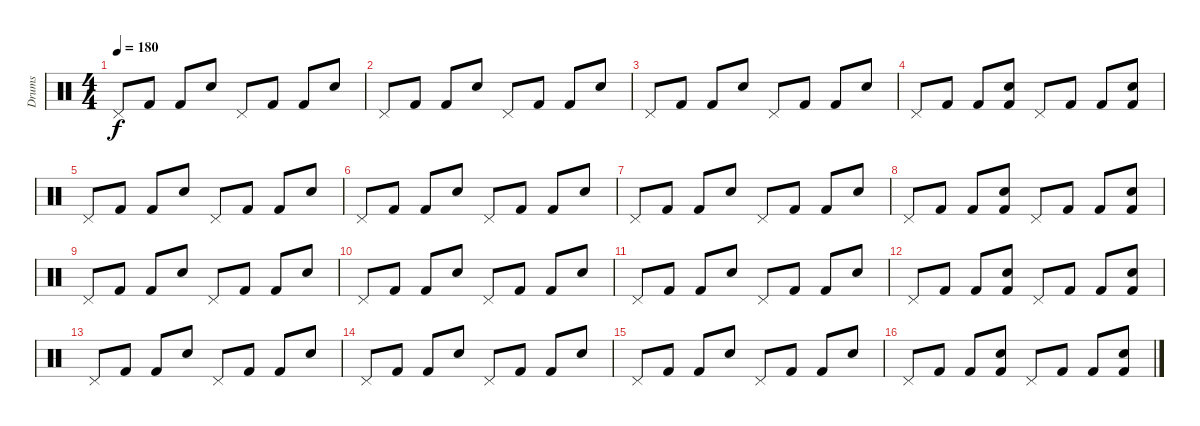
\track ("Drums" "Drums") {instrument percussion}
\staff {score}
\articulation defaults
\ts (4 4)
\tempo 180
\clef neutral
\ks c "Pedal Hi-Hat (hit)".8{dy f} "Kick (hit) 2".8 "Kick (hit) 2".8 "Electric Snare (hit)".8 "Pedal Hi-Hat (hit)".8 "Kick (hit) 2".8 "Kick (hit) 2".8 "Electric Snare (hit)".8
|
"Pedal Hi-Hat (hit)".8 "Kick (hit) 2".8 "Kick (hit) 2".8 "Electric Snare (hit)".8 "Pedal Hi-Hat (hit)".8 "Kick (hit) 2".8 "Kick (hit) 2".8 "Electric Snare (hit)".8 |
"Pedal Hi-Hat (hit)".8 "Kick (hit) 2".8 "Kick (hit) 2".8 "Electric Snare (hit)".8 "Pedal Hi-Hat (hit)".8 "Kick (hit) 2".8 "Kick (hit) 2".8 "Electric Snare (hit)".8 |
"Pedal Hi-Hat (hit)".8 "Kick (hit) 2".8 "Kick (hit) 2".8 ("Kick (hit) 2" "Electric Snare (hit)").8 "Pedal Hi-Hat (hit)".8 "Kick (hit) 2".8 "Kick (hit) 2".8 ("Kick (hit) 2" "Electric Snare (hit)").8 |
"Pedal Hi-Hat (hit)".8 "Kick (hit) 2".8 "Kick (hit) 2".8 "Electric Snare (hit)".8 "Pedal Hi-Hat (hit)".8 "Kick (hit) 2".8 "Kick (hit) 2".8 "Electric Snare (hit)".8 |
"Pedal Hi-Hat (hit)".8 "Kick (hit) 2".8 "Kick (hit) 2".8 "Electric Snare (hit)".8 "Pedal Hi-Hat (hit)".8 "Kick (hit) 2".8 "Kick (hit) 2".8 "Electric Snare (hit)".8 |
"Pedal Hi-Hat (hit)".8 "Kick (hit) 2".8 "Kick (hit) 2".8 "Electric Snare (hit)".8 "Pedal Hi-Hat (hit)".8 "Kick (hit) 2".8 "Kick (hit) 2".8 "Electric Snare (hit)".8 |
"Pedal Hi-Hat (hit)".8 "Kick (hit) 2".8 "Kick (hit) 2".8 ("Kick (hit) 2" "Electric Snare (hit)").8 "Pedal Hi-Hat (hit)".8 "Kick (hit) 2".8 "Kick (hit) 2".8 ("Kick (hit) 2" "Electric Snare (hit)").8 |
"Pedal Hi-Hat (hit)".8 "Kick (hit) 2".8 "Kick (hit) 2".8 "Electric Snare (hit)".8 "Pedal Hi-Hat (hit)".8 "Kick (hit) 2".8 "Kick (hit) 2".8 "Electric Snare (hit)".8 |
"Pedal Hi-Hat (hit)".8 "Kick (hit) 2".8 "Kick (hit) 2".8 "Electric Snare (hit)".8 "Pedal Hi-Hat (hit)".8 "Kick (hit) 2".8 "Kick (hit) 2".8 "Electric Snare (hit)".8 |
"Pedal Hi-Hat (hit)".8 "Kick (hit) 2".8 "Kick (hit) 2".8 "Electric Snare (hit)".8 "Pedal Hi-Hat (hit)".8 "Kick (hit) 2".8 "Kick (hit) 2".8 "Electric Snare (hit)".8 |
"Pedal Hi-Hat (hit)".8 "Kick (hit) 2".8 "Kick (hit) 2".8 ("Kick (hit) 2" "Electric Snare (hit)").8 "Pedal Hi-Hat (hit)".8 "Kick (hit) 2".8 "Kick (hit) 2".8 ("Kick (hit) 2" "Electric Snare (hit)").8 |
"Pedal Hi-Hat (hit)".8 "Kick (hit) 2".8 "Kick (hit) 2".8 "Electric Snare (hit)".8 "Pedal Hi-Hat (hit)".8 "Kick (hit) 2".8 "Kick (hit) 2".8 "Electric Snare (hit)".8 |
"Pedal Hi-Hat (hit)".8 "Kick (hit) 2".8 "Kick (hit) 2".8 "Electric Snare (hit)".8 "Pedal Hi-Hat (hit)".8 "Kick (hit) 2".8 "Kick (hit) 2".8 "Electric Snare (hit)".8 |
"Pedal Hi-Hat (hit)".8 "Kick (hit) 2".8 "Kick (hit) 2".8 "Electric Snare (hit)".8 "Pedal Hi-Hat (hit)".8 "Kick (hit) 2".8 "Kick (hit) 2".8 "Electric Snare (hit)".8 |
"Pedal Hi-Hat (hit)".8 "Kick (hit) 2".8 "Kick (hit) 2".8 ("Kick (hit) 2" "Electric Snare (hit)").8 "Pedal Hi-Hat (hit)".8 "Kick (hit) 2".8 "Kick (hit) 2".8 ("Kick (hit) 2" "Electric Snare (hit)").8
